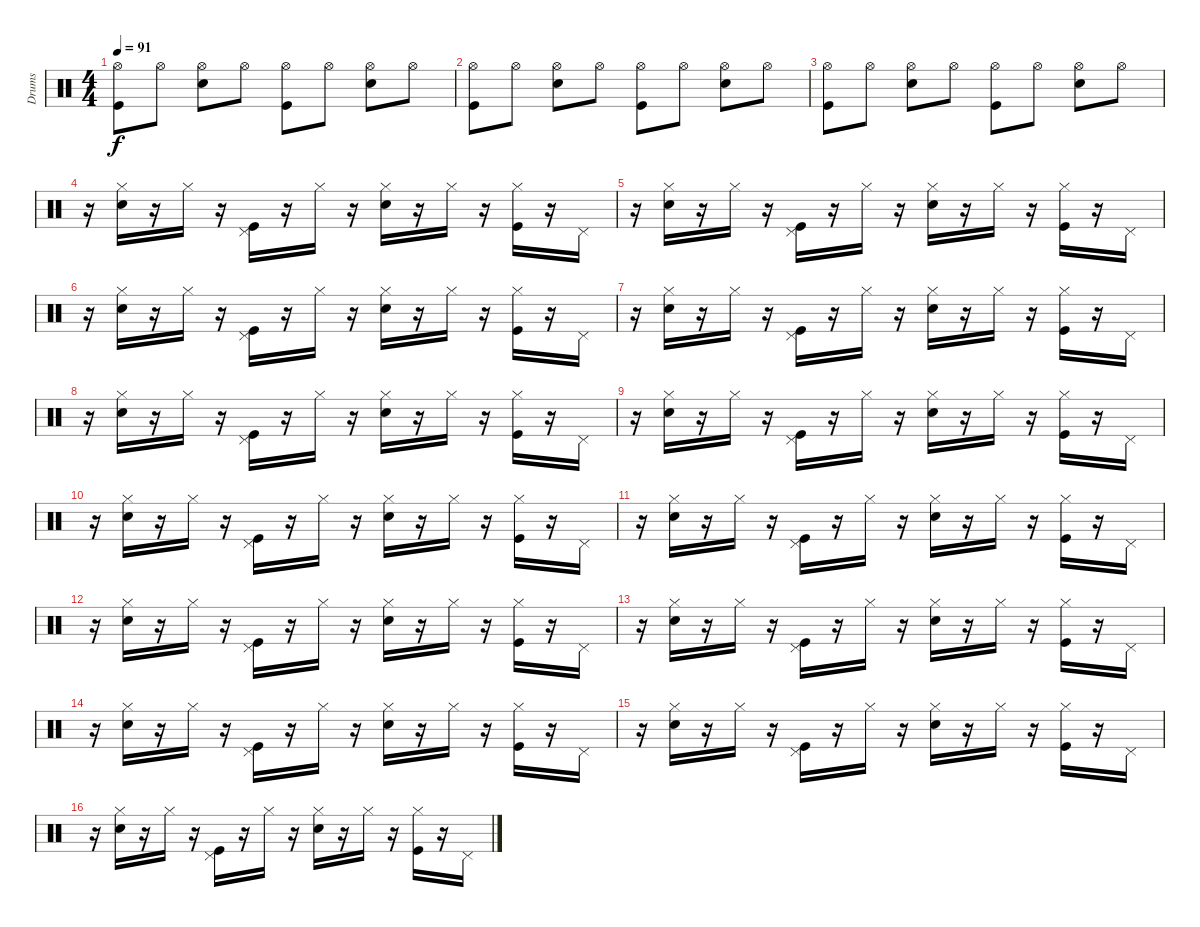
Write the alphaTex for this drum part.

\track ("Drums" "Drums") {instrument percussion}
\staff {score}
\articulation defaults
\ts (4 4)
\tempo 91
\clef neutral
\ks c
("Hi-Hat (open)" "Kick (hit)").8{dy f} "Hi-Hat (open)".8 ("Hi-Hat (open)" "Snare (hit) 2").8 "Hi-Hat (open)".8 ("Hi-Hat (open)" "Kick (hit)").8 "Hi-Hat (open)".8 ("Hi-Hat (open)" "Snare (hit) 2").8 "Hi-Hat (open)".8 |
("Hi-Hat (open)" "Kick (hit)").8 "Hi-Hat (open)".8 ("Hi-Hat (open)" "Snare (hit) 2").8 "Hi-Hat (open)".8 ("Hi-Hat (open)" "Kick (hit)").8 "Hi-Hat (open)".8 ("Hi-Hat (open)" "Snare (hit) 2").8 "Hi-Hat (open)".8 |
("Hi-Hat (open)" "Kick (hit)").8 "Hi-Hat (open)".8 ("Hi-Hat (open)" "Snare (hit) 2").8 "Hi-Hat (open)".8 ("Hi-Hat (open)" "Kick (hit)").8 "Hi-Hat (open)".8 ("Hi-Hat (open)" "Snare (hit) 2").8 "Hi-Hat (open)".8 |
r.16 ("Hi-Hat (closed)" "Snare (hit) 2").16 r.16 "Hi-Hat (closed)".16 r.16 ("Pedal Hi-Hat (hit)" "Kick (hit)").16 r.16 "Hi-Hat (closed)".16 r.16 ("Hi-Hat (closed)" "Snare (hit) 2").16 r.16 "Hi-Hat (closed)".16 r.16 ("Hi-Hat (closed)" "Kick (hit)").16 r.16 "Pedal Hi-Hat (hit)".16 |
r.16 ("Hi-Hat (closed)" "Snare (hit) 2").16 r.16 "Hi-Hat (closed)".16 r.16 ("Pedal Hi-Hat (hit)" "Kick (hit)").16 r.16 "Hi-Hat (closed)".16 r.16 ("Hi-Hat (closed)" "Snare (hit) 2").16 r.16 "Hi-Hat (closed)".16 r.16 ("Hi-Hat (closed)" "Kick (hit)").16 r.16 "Pedal Hi-Hat (hit)".16 |
r.16 ("Hi-Hat (closed)" "Snare (hit) 2").16 r.16 "Hi-Hat (closed)".16 r.16 ("Pedal Hi-Hat (hit)" "Kick (hit)").16 r.16 "Hi-Hat (closed)".16 r.16 ("Hi-Hat (closed)" "Snare (hit) 2").16 r.16 "Hi-Hat (closed)".16 r.16 ("Hi-Hat (closed)" "Kick (hit)").16 r.16 "Pedal Hi-Hat (hit)".16 |
r.16 ("Hi-Hat (closed)" "Snare (hit) 2").16 r.16 "Hi-Hat (closed)".16 r.16 ("Pedal Hi-Hat (hit)" "Kick (hit)").16 r.16 "Hi-Hat (closed)".16 r.16 ("Hi-Hat (closed)" "Snare (hit) 2").16 r.16 "Hi-Hat (closed)".16 r.16 ("Hi-Hat (closed)" "Kick (hit)").16 r.16 "Pedal Hi-Hat (hit)".16 |
r.16 ("Hi-Hat (closed)" "Snare (hit) 2").16 r.16 "Hi-Hat (closed)".16 r.16 ("Pedal Hi-Hat (hit)" "Kick (hit)").16 r.16 "Hi-Hat (closed)".16 r.16 ("Hi-Hat (closed)" "Snare (hit) 2").16 r.16 "Hi-Hat (closed)".16 r.16 ("Hi-Hat (closed)" "Kick (hit)").16 r.16 "Pedal Hi-Hat (hit)".16 |
r.16 ("Hi-Hat (closed)" "Snare (hit) 2").16 r.16 "Hi-Hat (closed)".16 r.16 ("Pedal Hi-Hat (hit)" "Kick (hit)").16 r.16 "Hi-Hat (closed)".16 r.16 ("Hi-Hat (closed)" "Snare (hit) 2").16 r.16 "Hi-Hat (closed)".16 r.16 ("Hi-Hat (closed)" "Kick (hit)").16 r.16 "Pedal Hi-Hat (hit)".16 |
r.16 ("Hi-Hat (closed)" "Snare (hit) 2").16 r.16 "Hi-Hat (closed)".16 r.16 ("Pedal Hi-Hat (hit)" "Kick (hit)").16 r.16 "Hi-Hat (closed)".16 r.16 ("Hi-Hat (closed)" "Snare (hit) 2").16 r.16 "Hi-Hat (closed)".16 r.16 ("Hi-Hat (closed)" "Kick (hit)").16 r.16 "Pedal Hi-Hat (hit)".16 |
r.16 ("Hi-Hat (closed)" "Snare (hit) 2").16 r.16 "Hi-Hat (closed)".16 r.16 ("Pedal Hi-Hat (hit)" "Kick (hit)").16 r.16 "Hi-Hat (closed)".16 r.16 ("Hi-Hat (closed)" "Snare (hit) 2").16 r.16 "Hi-Hat (closed)".16 r.16 ("Hi-Hat (closed)" "Kick (hit)").16 r.16 "Pedal Hi-Hat (hit)".16 |
r.16 ("Hi-Hat (closed)" "Snare (hit) 2").16 r.16 "Hi-Hat (closed)".16 r.16 ("Pedal Hi-Hat (hit)" "Kick (hit)").16 r.16 "Hi-Hat (closed)".16 r.16 ("Hi-Hat (closed)" "Snare (hit) 2").16 r.16 "Hi-Hat (closed)".16 r.16 ("Hi-Hat (closed)" "Kick (hit)").16 r.16 "Pedal Hi-Hat (hit)".16 |
r.16 ("Hi-Hat (closed)" "Snare (hit) 2").16 r.16 "Hi-Hat (closed)".16 r.16 ("Pedal Hi-Hat (hit)" "Kick (hit)").16 r.16 "Hi-Hat (closed)".16 r.16 ("Hi-Hat (closed)" "Snare (hit) 2").16 r.16 "Hi-Hat (closed)".16 r.16 ("Hi-Hat (closed)" "Kick (hit)").16 r.16 "Pedal Hi-Hat (hit)".16 |
r.16 ("Hi-Hat (closed)" "Snare (hit) 2").16 r.16 "Hi-Hat (closed)".16 r.16 ("Pedal Hi-Hat (hit)" "Kick (hit)").16 r.16 "Hi-Hat (closed)".16 r.16 ("Hi-Hat (closed)" "Snare (hit) 2").16 r.16 "Hi-Hat (closed)".16 r.16 ("Hi-Hat (closed)" "Kick (hit)").16 r.16 "Pedal Hi-Hat (hit)".16 |
r.16 ("Hi-Hat (closed)" "Snare (hit) 2").16 r.16 "Hi-Hat (closed)".16 r.16 ("Pedal Hi-Hat (hit)" "Kick (hit)").16 r.16 "Hi-Hat (closed)".16 r.16 ("Hi-Hat (closed)" "Snare (hit) 2").16 r.16 "Hi-Hat (closed)".16 r.16 ("Hi-Hat (closed)" "Kick (hit)").16 r.16 "Pedal Hi-Hat (hit)".16 |
r.16 ("Hi-Hat (closed)" "Snare (hit) 2").16 r.16 "Hi-Hat (closed)".16 r.16 ("Pedal Hi-Hat (hit)" "Kick (hit)").16 r.16 "Hi-Hat (closed)".16 r.16 ("Hi-Hat (closed)" "Snare (hit) 2").16 r.16 "Hi-Hat (closed)".16 r.16 ("Hi-Hat (closed)" "Kick (hit)").16 r.16 "Pedal Hi-Hat (hit)".16
